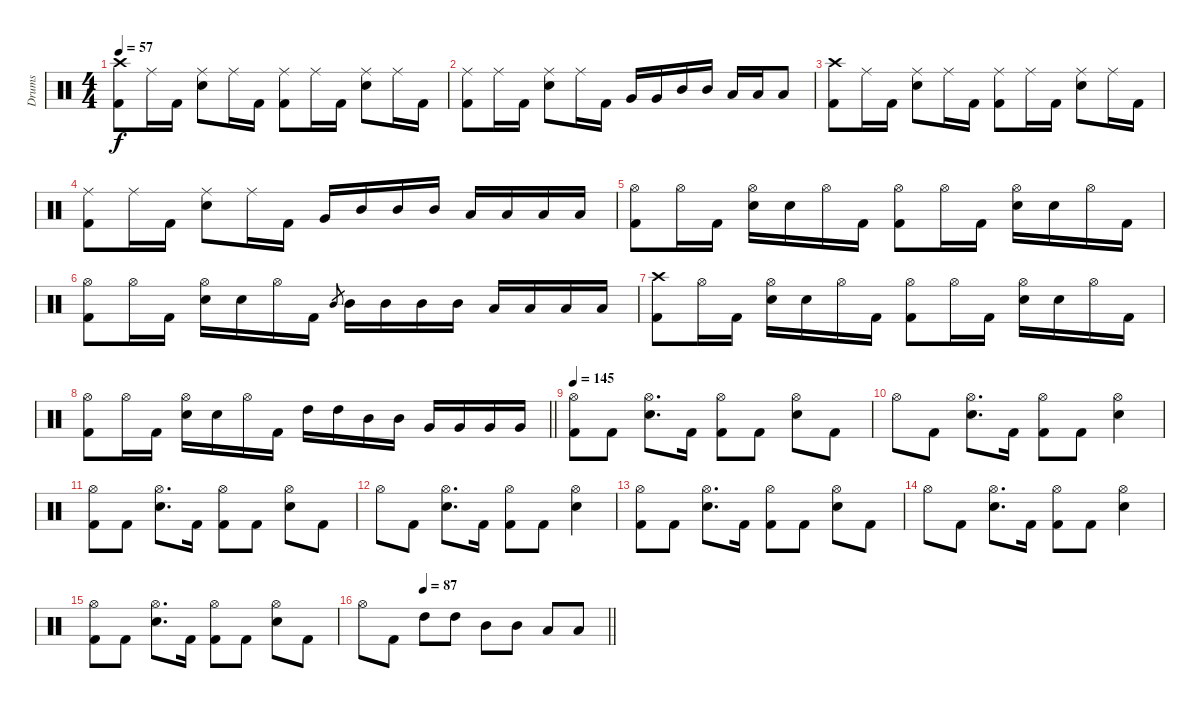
\track ("Drums" "Drums") {instrument percussion}
\staff {score}
\articulation defaults
\ts (4 4)
\tempo 57
\clef neutral
\ks c
("Crash high (hit)" "Kick (hit) 2").8{dy f} "Ride (middle)".16 "Kick (hit) 2".16 ("Ride (middle)" "Electric Snare (hit)").8 "Ride (middle)".16 "Kick (hit) 2".16 ("Ride (middle)" "Kick (hit) 2").8 "Ride (middle)".16 "Kick (hit) 2".16 ("Ride (middle)" "Electric Snare (hit)").8 "Ride (middle)".16 "Kick (hit) 2".16 |
("Ride (middle)" "Kick (hit) 2").8 "Ride (middle)".16 "Kick (hit) 2".16 ("Ride (middle)" "Electric Snare (hit)").8 "Ride (middle)".16 "Kick (hit) 2".16 "Very Low Tom (hit)".16 "Very Low Tom (hit)".16 "Mid Tom (hit)".16 "Mid Tom (hit)".16 "Low Floor Tom (hit)".16 "Low Floor Tom (hit)".16 "Low Tom (hit)".8 |
("Crash high (hit)" "Kick (hit) 2").8 "Ride (middle)".16 "Kick (hit) 2".16 ("Ride (middle)" "Electric Snare (hit)").8 "Ride (middle)".16 "Kick (hit) 2".16 ("Ride (middle)" "Kick (hit) 2").8 "Ride (middle)".16 "Kick (hit) 2".16 ("Ride (middle)" "Electric Snare (hit)").8 "Ride (middle)".16 "Kick (hit) 2".16 |
("Ride (middle)" "Kick (hit) 2").8 "Ride (middle)".16 "Kick (hit) 2".16 ("Ride (middle)" "Electric Snare (hit)").8 "Ride (middle)".16 "Kick (hit) 2".16 "Very Low Tom (hit)".16 "Mid Tom (hit)".16 "Mid Tom (hit)".16 "Mid Tom (hit)".16 "Low Tom (hit)".16 "Low Tom (hit)".16 "Low Tom (hit)".16 "Low Tom (hit)".16 |
("Hi-Hat (open)" "Kick (hit) 2").8 "Hi-Hat (open)".16 "Kick (hit) 2".16 ("Hi-Hat (open)" "Electric Snare (hit)").16 "Electric Snare (hit)".16 "Hi-Hat (open)".16 "Kick (hit) 2".16 ("Hi-Hat (open)" "Kick (hit) 2").8 "Hi-Hat (open)".16 "Kick (hit) 2".16 ("Hi-Hat (open)" "Electric Snare (hit)").16 "Electric Snare (hit)".16 "Hi-Hat (open)".16 "Kick (hit) 2".16 |
("Hi-Hat (open)" "Kick (hit) 2").8 "Hi-Hat (open)".16 "Kick (hit) 2".16 ("Hi-Hat (open)" "Electric Snare (hit)").16 "Electric Snare (hit)".16 "Hi-Hat (open)".16 "Kick (hit) 2".16 "Mid Tom (hit)".8{gr} "Mid Tom (hit)".16 "Mid Tom (hit)".16 "Mid Tom (hit)".16 "Mid Tom (hit)".16 "Low Tom (hit)".16 "Low Tom (hit)".16 "Low Tom (hit)".16 "Low Tom (hit)".16 |
("Crash high (hit)" "Kick (hit) 2").8 "Hi-Hat (open)".16 "Kick (hit) 2".16 ("Hi-Hat (open)" "Electric Snare (hit)").16 "Electric Snare (hit)".16 "Hi-Hat (open)".16 "Kick (hit) 2".16 ("Hi-Hat (open)" "Kick (hit) 2").8 "Hi-Hat (open)".16 "Kick (hit) 2".16 ("Hi-Hat (open)" "Electric Snare (hit)").16 "Electric Snare (hit)".16 "Hi-Hat (open)".16 "Kick (hit) 2".16 |
\barLineRight lightlight
("Hi-Hat (open)" "Kick (hit) 2").8 "Hi-Hat (open)".16 "Kick (hit) 2".16 ("Hi-Hat (open)" "Electric Snare (hit)").16 "Electric Snare (hit)".16 "Hi-Hat (open)".16 "Kick (hit) 2".16 "High Tom (hit)".16 "High Tom (hit)".16 "Mid Tom (hit)".16 "Mid Tom (hit)".16 "Very Low Tom (hit)".16 "Very Low Tom (hit)".16 "Very Low Tom (hit)".16 "Very Low Tom (hit)".16 |
\tempo 145
("Hi-Hat (open)" "Kick (hit) 2").8 "Kick (hit) 2".8 ("Hi-Hat (open)" "Electric Snare (hit)").8{d} "Kick (hit) 2".16 ("Hi-Hat (open)" "Kick (hit) 2").8 "Kick (hit) 2".8 ("Hi-Hat (open)" "Electric Snare (hit)").8 "Kick (hit) 2".8 |
"Hi-Hat (open)".8 "Kick (hit) 2".8 ("Hi-Hat (open)" "Electric Snare (hit)").8{d} "Kick (hit) 2".16 ("Hi-Hat (open)" "Kick (hit) 2").8 "Kick (hit) 2".8 ("Hi-Hat (open)" "Electric Snare (hit)").4 |
("Hi-Hat (open)" "Kick (hit) 2").8 "Kick (hit) 2".8 ("Hi-Hat (open)" "Electric Snare (hit)").8{d} "Kick (hit) 2".16 ("Hi-Hat (open)" "Kick (hit) 2").8 "Kick (hit) 2".8 ("Hi-Hat (open)" "Electric Snare (hit)").8 "Kick (hit) 2".8 |
"Hi-Hat (open)".8 "Kick (hit) 2".8 ("Hi-Hat (open)" "Electric Snare (hit)").8{d} "Kick (hit) 2".16 ("Hi-Hat (open)" "Kick (hit) 2").8 "Kick (hit) 2".8 ("Hi-Hat (open)" "Electric Snare (hit)").4 |
("Hi-Hat (open)" "Kick (hit) 2").8 "Kick (hit) 2".8 ("Hi-Hat (open)" "Electric Snare (hit)").8{d} "Kick (hit) 2".16 ("Hi-Hat (open)" "Kick (hit) 2").8 "Kick (hit) 2".8 ("Hi-Hat (open)" "Electric Snare (hit)").8 "Kick (hit) 2".8 |
"Hi-Hat (open)".8 "Kick (hit) 2".8 ("Hi-Hat (open)" "Electric Snare (hit)").8{d} "Kick (hit) 2".16 ("Hi-Hat (open)" "Kick (hit) 2").8 "Kick (hit) 2".8 ("Hi-Hat (open)" "Electric Snare (hit)").4 |
("Hi-Hat (open)" "Kick (hit) 2").8 "Kick (hit) 2".8 ("Hi-Hat (open)" "Electric Snare (hit)").8{d} "Kick (hit) 2".16 ("Hi-Hat (open)" "Kick (hit) 2").8 "Kick (hit) 2".8 ("Hi-Hat (open)" "Electric Snare (hit)").8 "Kick (hit) 2".8 |
\tempo (87 0.25)
\barLineRight lightlight "Hi-Hat (open)".8 "Kick (hit) 2".8 "High Tom (hit)".8 "High Tom (hit)".8 "Mid Tom (hit)".8 "Mid Tom (hit)".8 "Low Tom (hit)".8 "Low Tom (hit)".8
